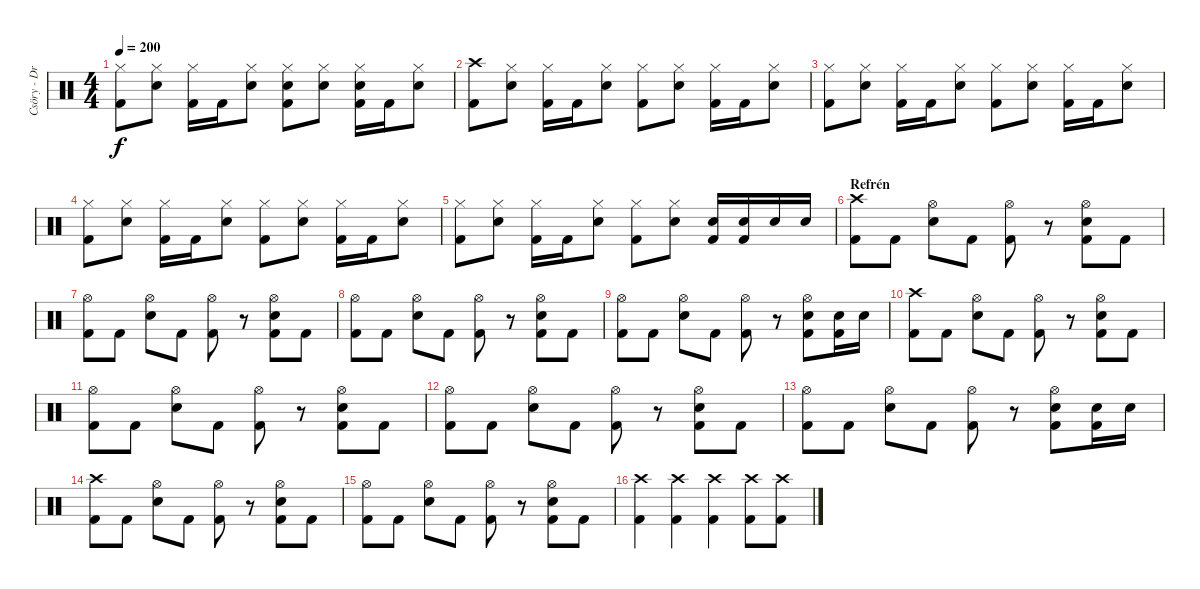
\track ("Csöry - DrumZ" "Csöry - Dr") {instrument percussion}
\staff {score}
\articulation defaults
\ts (4 4)
\tempo 200
\clef neutral
\ks c
("Hi-Hat (closed)" "Kick (hit) 2").8{dy f} ("Hi-Hat (closed)" "Snare (hit) 2").8 ("Hi-Hat (closed)" "Kick (hit) 2").16 "Kick (hit) 2".16 ("Hi-Hat (closed)" "Snare (hit) 2").8 ("Hi-Hat (closed)" "Snare (hit) 2" "Kick (hit) 2").8 ("Hi-Hat (closed)" "Snare (hit) 2").8 ("Hi-Hat (closed)" "Snare (hit) 2" "Kick (hit) 2").16 "Kick (hit) 2".16 ("Hi-Hat (closed)" "Snare (hit) 2").8 |
("Crash high (hit)" "Kick (hit) 2").8 ("Hi-Hat (closed)" "Snare (hit) 2").8 ("Hi-Hat (closed)" "Kick (hit) 2").16 "Kick (hit) 2".16 ("Hi-Hat (closed)" "Snare (hit) 2").8 ("Hi-Hat (closed)" "Kick (hit) 2").8 ("Hi-Hat (closed)" "Snare (hit) 2").8 ("Hi-Hat (closed)" "Kick (hit) 2").16 "Kick (hit) 2".16 ("Hi-Hat (closed)" "Snare (hit) 2").8 |
("Hi-Hat (closed)" "Kick (hit) 2").8 ("Hi-Hat (closed)" "Snare (hit) 2").8 ("Hi-Hat (closed)" "Kick (hit) 2").16 "Kick (hit) 2".16 ("Hi-Hat (closed)" "Snare (hit) 2").8 ("Hi-Hat (closed)" "Kick (hit) 2").8 ("Hi-Hat (closed)" "Snare (hit) 2").8 ("Hi-Hat (closed)" "Kick (hit) 2").16 "Kick (hit) 2".16 ("Hi-Hat (closed)" "Snare (hit) 2").8 |
("Hi-Hat (closed)" "Kick (hit) 2").8 ("Hi-Hat (closed)" "Snare (hit) 2").8 ("Hi-Hat (closed)" "Kick (hit) 2").16 "Kick (hit) 2".16 ("Hi-Hat (closed)" "Snare (hit) 2").8 ("Hi-Hat (closed)" "Kick (hit) 2").8 ("Hi-Hat (closed)" "Snare (hit) 2").8 ("Hi-Hat (closed)" "Kick (hit) 2").16 "Kick (hit) 2".16 ("Hi-Hat (closed)" "Snare (hit) 2").8 |
("Hi-Hat (closed)" "Kick (hit) 2").8 ("Hi-Hat (closed)" "Snare (hit) 2").8 ("Hi-Hat (closed)" "Kick (hit) 2").16 "Kick (hit) 2".16 ("Hi-Hat (closed)" "Snare (hit) 2").8 ("Hi-Hat (closed)" "Kick (hit) 2").8 ("Hi-Hat (closed)" "Snare (hit) 2").8 ("Snare (hit) 2" "Kick (hit) 2").16 ("Snare (hit) 2" "Kick (hit) 2").16 "Snare (hit) 2".16 "Snare (hit) 2".16 |
\section ("" "Refrén")
("Crash high (hit)" "Kick (hit) 2").8 "Kick (hit) 2".8 ("Hi-Hat (open)" "Snare (hit) 2").8 "Kick (hit) 2".8 ("Hi-Hat (open)" "Kick (hit) 2").8 r.8 ("Hi-Hat (open)" "Snare (hit) 2" "Kick (hit) 2").8 "Kick (hit) 2".8 |
("Hi-Hat (open)" "Kick (hit) 2").8 "Kick (hit) 2".8 ("Hi-Hat (open)" "Snare (hit) 2").8 "Kick (hit) 2".8 ("Hi-Hat (open)" "Kick (hit) 2").8 r.8 ("Hi-Hat (open)" "Snare (hit) 2" "Kick (hit) 2").8 "Kick (hit) 2".8 |
("Hi-Hat (open)" "Kick (hit) 2").8 "Kick (hit) 2".8 ("Hi-Hat (open)" "Snare (hit) 2").8 "Kick (hit) 2".8 ("Hi-Hat (open)" "Kick (hit) 2").8 r.8 ("Hi-Hat (open)" "Snare (hit) 2" "Kick (hit) 2").8 "Kick (hit) 2".8 |
("Hi-Hat (open)" "Kick (hit) 2").8 "Kick (hit) 2".8 ("Hi-Hat (open)" "Snare (hit) 2").8 "Kick (hit) 2".8 ("Hi-Hat (open)" "Kick (hit) 2").8 r.8 ("Hi-Hat (open)" "Snare (hit) 2" "Kick (hit) 2").8 ("Snare (hit) 2" "Kick (hit) 2").16 "Snare (hit) 2".16 |
("Crash high (hit)" "Kick (hit) 2").8 "Kick (hit) 2".8 ("Hi-Hat (open)" "Snare (hit) 2").8 "Kick (hit) 2".8 ("Hi-Hat (open)" "Kick (hit) 2").8 r.8 ("Hi-Hat (open)" "Snare (hit) 2" "Kick (hit) 2").8 "Kick (hit) 2".8 |
("Hi-Hat (open)" "Kick (hit) 2").8 "Kick (hit) 2".8 ("Hi-Hat (open)" "Snare (hit) 2").8 "Kick (hit) 2".8 ("Hi-Hat (open)" "Kick (hit) 2").8 r.8 ("Hi-Hat (open)" "Snare (hit) 2" "Kick (hit) 2").8 "Kick (hit) 2".8 |
("Hi-Hat (open)" "Kick (hit) 2").8 "Kick (hit) 2".8 ("Hi-Hat (open)" "Snare (hit) 2").8 "Kick (hit) 2".8 ("Hi-Hat (open)" "Kick (hit) 2").8 r.8 ("Hi-Hat (open)" "Snare (hit) 2" "Kick (hit) 2").8 "Kick (hit) 2".8 |
("Hi-Hat (open)" "Kick (hit) 2").8 "Kick (hit) 2".8 ("Hi-Hat (open)" "Snare (hit) 2").8 "Kick (hit) 2".8 ("Hi-Hat (open)" "Kick (hit) 2").8 r.8 ("Hi-Hat (open)" "Snare (hit) 2" "Kick (hit) 2").8 ("Snare (hit) 2" "Kick (hit) 2").16 "Snare (hit) 2".16 |
("Crash high (hit)" "Kick (hit) 2").8 "Kick (hit) 2".8 ("Hi-Hat (open)" "Snare (hit) 2").8 "Kick (hit) 2".8 ("Hi-Hat (open)" "Kick (hit) 2").8 r.8 ("Hi-Hat (open)" "Snare (hit) 2" "Kick (hit) 2").8 "Kick (hit) 2".8 |
("Hi-Hat (open)" "Kick (hit) 2").8 "Kick (hit) 2".8 ("Hi-Hat (open)" "Snare (hit) 2").8 "Kick (hit) 2".8 ("Hi-Hat (open)" "Kick (hit) 2").8 r.8 ("Hi-Hat (open)" "Snare (hit) 2" "Kick (hit) 2").8 "Kick (hit) 2".8 |
("Crash high (hit)" "Kick (hit) 2").4 ("Crash high (hit)" "Kick (hit) 2").4 ("Crash high (hit)" "Kick (hit) 2").4 ("Crash high (hit)" "Kick (hit) 2").8 ("Crash high (hit)" "Kick (hit) 2").8
